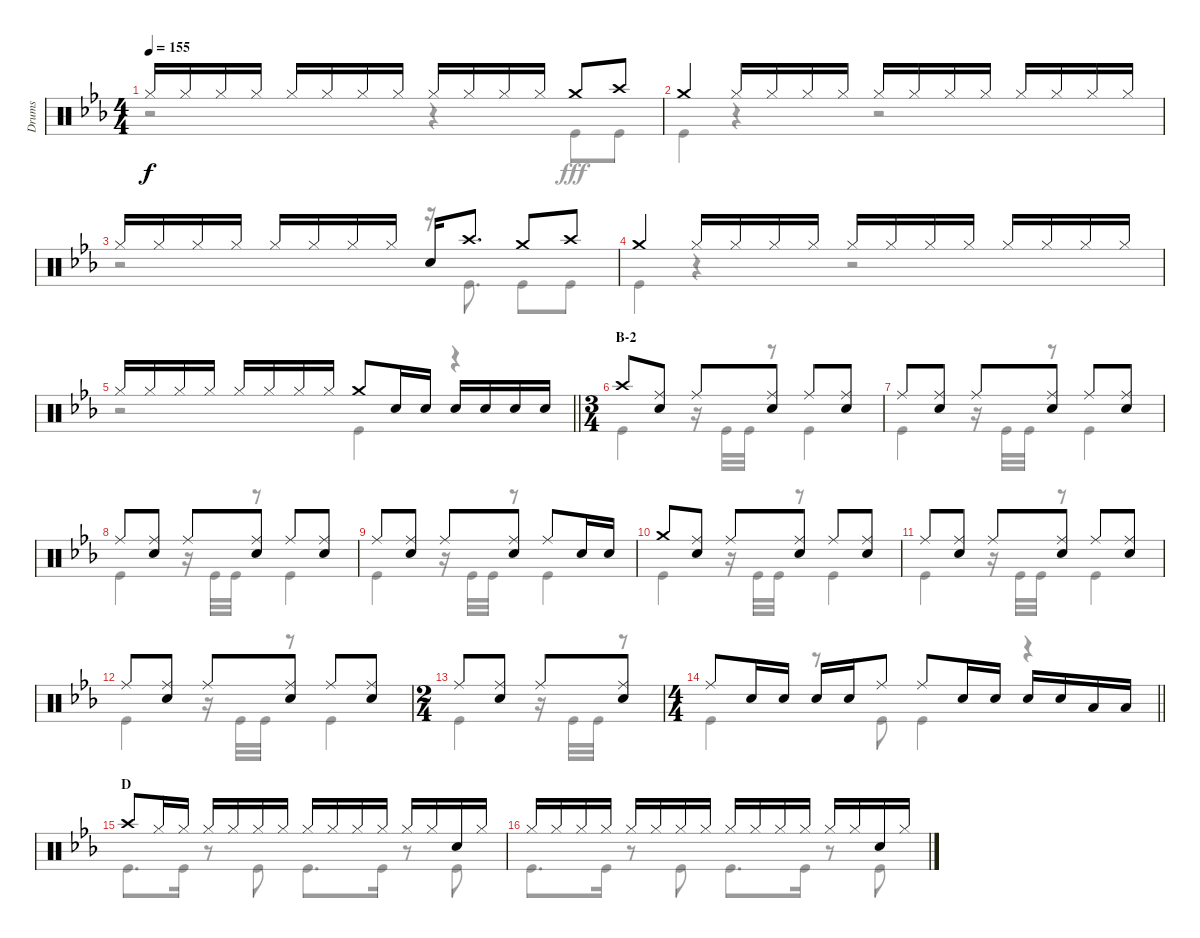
\track ("Drums" "Drums") {instrument percussion}
\staff {score}
\articulation defaults
\voice
\ts (4 4)
\tempo 155
\clef neutral
\ks eb "Hi-Hat (closed)".16{dy f} "Hi-Hat (closed)".16 "Hi-Hat (closed)".16 "Hi-Hat (closed)".16 "Hi-Hat (closed)".16 "Hi-Hat (closed)".16 "Hi-Hat (closed)".16 "Hi-Hat (closed)".16 "Hi-Hat (closed)".16 "Hi-Hat (closed)".16 "Hi-Hat (closed)".16 "Hi-Hat (closed)".16 "Crash medium (hit)".8 "Crash high (hit)".8
|
"Crash medium (hit)".4 "Hi-Hat (closed)".16 "Hi-Hat (closed)".16 "Hi-Hat (closed)".16 "Hi-Hat (closed)".16 "Hi-Hat (closed)".16 "Hi-Hat (closed)".16 "Hi-Hat (closed)".16 "Hi-Hat (closed)".16 "Hi-Hat (closed)".16 "Hi-Hat (closed)".16 "Hi-Hat (closed)".16 "Hi-Hat (closed)".16 |
"Hi-Hat (closed)".16 "Hi-Hat (closed)".16 "Hi-Hat (closed)".16 "Hi-Hat (closed)".16 "Hi-Hat (closed)".16 "Hi-Hat (closed)".16 "Hi-Hat (closed)".16 "Hi-Hat (closed)".16 "Snare (hit) 2".16 "Crash high (hit)".8{d} "Crash medium (hit)".8 "Crash high (hit)".8 |
"Crash medium (hit)".4 "Hi-Hat (closed)".16 "Hi-Hat (closed)".16 "Hi-Hat (closed)".16 "Hi-Hat (closed)".16 "Hi-Hat (closed)".16 "Hi-Hat (closed)".16 "Hi-Hat (closed)".16 "Hi-Hat (closed)".16 "Hi-Hat (closed)".16 "Hi-Hat (closed)".16 "Hi-Hat (closed)".16 "Hi-Hat (closed)".16 |
\barLineRight lightlight "Hi-Hat (closed)".16 "Hi-Hat (closed)".16 "Hi-Hat (closed)".16 "Hi-Hat (closed)".16 "Hi-Hat (closed)".16 "Hi-Hat (closed)".16 "Hi-Hat (closed)".16 "Hi-Hat (closed)".16 "Crash medium (hit)".8 "Snare (hit) 2".16 "Snare (hit) 2".16 "Snare (hit) 2".16 "Snare (hit) 2".16 "Snare (hit) 2".16 "Snare (hit) 2".16
|
\ts (3 4)
\section ("" "B-2")
"Crash high (hit)".8 ("Ride (middle)" "Snare (hit) 2").8 "Ride (middle)".8 ("Ride (middle)" "Snare (hit) 2").8 "Ride (middle)".8 ("Ride (middle)" "Snare (hit) 2").8 |
"Ride (middle)".8 ("Ride (middle)" "Snare (hit) 2").8 "Ride (middle)".8 ("Ride (middle)" "Snare (hit) 2").8 "Ride (middle)".8 ("Ride (middle)" "Snare (hit) 2").8 |
"Ride (middle)".8 ("Ride (middle)" "Snare (hit) 2").8 "Ride (middle)".8 ("Ride (middle)" "Snare (hit) 2").8 "Ride (middle)".8 ("Ride (middle)" "Snare (hit) 2").8 |
"Ride (middle)".8 ("Ride (middle)" "Snare (hit) 2").8 "Ride (middle)".8 ("Ride (middle)" "Snare (hit) 2").8 "Ride (middle)".8 "Snare (hit) 2".16 "Snare (hit) 2".16 |
"Crash medium (hit)".8 ("Ride (middle)" "Snare (hit) 2").8 "Ride (middle)".8 ("Ride (middle)" "Snare (hit) 2").8 "Ride (middle)".8 ("Ride (middle)" "Snare (hit) 2").8 |
"Ride (middle)".8 ("Ride (middle)" "Snare (hit) 2").8 "Ride (middle)".8 ("Ride (middle)" "Snare (hit) 2").8 "Ride (middle)".8 ("Ride (middle)" "Snare (hit) 2").8 |
"Ride (middle)".8 ("Ride (middle)" "Snare (hit) 2").8 "Ride (middle)".8 ("Ride (middle)" "Snare (hit) 2").8 "Ride (middle)".8 ("Ride (middle)" "Snare (hit) 2").8 |
\ts (2 4)
"Ride (middle)".8 ("Ride (middle)" "Snare (hit) 2").8 "Ride (middle)".8 ("Ride (middle)" "Snare (hit) 2").8 |
\ts (4 4)
\barLineRight lightlight "Ride (middle)".8 "Snare (hit) 2".16 "Snare (hit) 2".16 "Snare (hit) 2".16 "Snare (hit) 2".16 "Ride (middle)".8 "Ride (middle)".8 "Snare (hit) 2".16 "Snare (hit) 2".16 "Snare (hit) 2".16 "Snare (hit) 2".16 "Low Tom (hit)".16 "Low Tom (hit)".16
|
\section ("" "D")
"Crash high (hit)".8 "Hi-Hat (closed)".16 "Hi-Hat (closed)".16 "Hi-Hat (closed)".16 "Hi-Hat (closed)".16 "Hi-Hat (closed)".16 "Hi-Hat (closed)".16 "Hi-Hat (closed)".16 "Hi-Hat (closed)".16 "Hi-Hat (closed)".16 "Hi-Hat (closed)".16 "Hi-Hat (closed)".16 "Hi-Hat (closed)".16 "Snare (hit) 2".16 "Hi-Hat (closed)".16 |
"Hi-Hat (closed)".16 "Hi-Hat (closed)".16 "Hi-Hat (closed)".16 "Hi-Hat (closed)".16 "Hi-Hat (closed)".16 "Hi-Hat (closed)".16 "Hi-Hat (closed)".16 "Hi-Hat (closed)".16 "Hi-Hat (closed)".16 "Hi-Hat (closed)".16 "Hi-Hat (closed)".16 "Hi-Hat (closed)".16 "Hi-Hat (closed)".16 "Hi-Hat (closed)".16 "Snare (hit) 2".16 "Hi-Hat (closed)".16
\voice
\clef neutral
\ottava regular
\simile none
\ks eb
r.2{dy fff} r.4 "Kick (hit)".8 "Kick (hit)".8 |
"Kick (hit)".4 r.4 r.2 |
r.2 r.16 "Kick (hit)".8{d} "Kick (hit)".8 "Kick (hit)".8 |
"Kick (hit)".4 r.4 r.2 |
\barLineRight lightlight
r.2 "Kick (hit)".4 r.4 |
"Kick (hit)".4 r.16 "Kick (hit)".32 "Kick (hit)".32 r.8 "Kick (hit)".4 |
"Kick (hit)".4 r.16 "Kick (hit)".32 "Kick (hit)".32 r.8 "Kick (hit)".4 |
"Kick (hit)".4 r.16 "Kick (hit)".32 "Kick (hit)".32 r.8 "Kick (hit)".4 |
"Kick (hit)".4 r.16 "Kick (hit)".32 "Kick (hit)".32 r.8 "Kick (hit)".4 |
"Kick (hit)".4 r.16 "Kick (hit)".32 "Kick (hit)".32 r.8 "Kick (hit)".4 |
"Kick (hit)".4 r.16 "Kick (hit)".32 "Kick (hit)".32 r.8 "Kick (hit)".4 |
"Kick (hit)".4 r.16 "Kick (hit)".32 "Kick (hit)".32 r.8 "Kick (hit)".4 |
"Kick (hit)".4 r.16 "Kick (hit)".32 "Kick (hit)".32 r.8 |
\barLineRight lightlight "Kick (hit)".4
r.8 "Kick (hit)".8 "Kick (hit)".4 r.4 |
"Kick (hit)".8{d} "Kick (hit)".16 r.8 "Kick (hit)".8 "Kick (hit)".8{d} "Kick (hit)".16 r.8 "Kick (hit)".8 |
"Kick (hit)".8{d} "Kick (hit)".16 r.8 "Kick (hit)".8 "Kick (hit)".8{d} "Kick (hit)".16 r.8 "Kick (hit)".8
